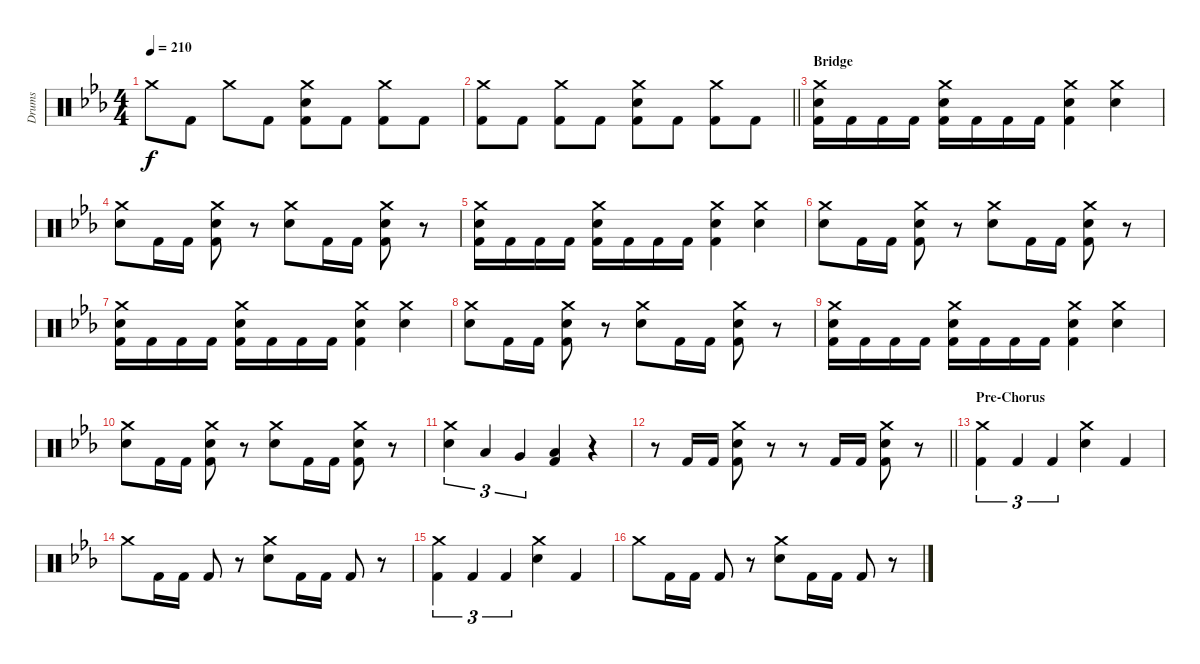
\track ("Drums" "Drums") {instrument percussion}
\staff {score}
\articulation defaults
\ts (4 4)
\tempo 210
\clef neutral
\ks cminor "Crash medium (hit)".8{dy f} "Kick (hit) 2".8 "Crash medium (hit)".8 "Kick (hit) 2".8
("Crash medium (hit)" "Electric Snare (hit)" "Kick (hit) 2").8 "Kick (hit) 2".8 ("Crash medium (hit)" "Kick (hit) 2").8 "Kick (hit) 2".8 |
\barLineRight lightlight
("Crash medium (hit)" "Kick (hit) 2").8 "Kick (hit) 2".8 ("Crash medium (hit)" "Kick (hit) 2").8 "Kick (hit) 2".8 ("Crash medium (hit)" "Electric Snare (hit)" "Kick (hit) 2").8 "Kick (hit) 2".8 ("Crash medium (hit)" "Kick (hit) 2").8 "Kick (hit) 2".8 |
\section ("" "Bridge")
("Crash medium (hit)" "Electric Snare (hit)" "Kick (hit) 2").16 "Kick (hit) 2".16 "Kick (hit) 2".16 "Kick (hit) 2".16 ("Crash medium (hit)" "Electric Snare (hit)" "Kick (hit) 2").16 "Kick (hit) 2".16 "Kick (hit) 2".16 "Kick (hit) 2".16 ("Crash medium (hit)" "Electric Snare (hit)" "Kick (hit) 2").4 ("Crash medium (hit)" "Electric Snare (hit)").4 |
("Crash medium (hit)" "Electric Snare (hit)").8 "Kick (hit) 2".16 "Kick (hit) 2".16 ("Crash medium (hit)" "Electric Snare (hit)" "Kick (hit) 2").8 r.8 ("Crash medium (hit)" "Electric Snare (hit)").8 "Kick (hit) 2".16 "Kick (hit) 2".16 ("Crash medium (hit)" "Electric Snare (hit)" "Kick (hit) 2").8 r.8 |
("Crash medium (hit)" "Electric Snare (hit)" "Kick (hit) 2").16 "Kick (hit) 2".16 "Kick (hit) 2".16 "Kick (hit) 2".16 ("Crash medium (hit)" "Electric Snare (hit)" "Kick (hit) 2").16 "Kick (hit) 2".16 "Kick (hit) 2".16 "Kick (hit) 2".16 ("Crash medium (hit)" "Electric Snare (hit)" "Kick (hit) 2").4 ("Crash medium (hit)" "Electric Snare (hit)").4 |
("Crash medium (hit)" "Electric Snare (hit)").8 "Kick (hit) 2".16 "Kick (hit) 2".16 ("Crash medium (hit)" "Electric Snare (hit)" "Kick (hit) 2").8 r.8 ("Crash medium (hit)" "Electric Snare (hit)").8 "Kick (hit) 2".16 "Kick (hit) 2".16 ("Crash medium (hit)" "Electric Snare (hit)" "Kick (hit) 2").8 r.8 |
("Crash medium (hit)" "Electric Snare (hit)" "Kick (hit) 2").16 "Kick (hit) 2".16 "Kick (hit) 2".16 "Kick (hit) 2".16 ("Crash medium (hit)" "Electric Snare (hit)" "Kick (hit) 2").16 "Kick (hit) 2".16 "Kick (hit) 2".16 "Kick (hit) 2".16 ("Crash medium (hit)" "Electric Snare (hit)" "Kick (hit) 2").4 ("Crash medium (hit)" "Electric Snare (hit)").4 |
("Crash medium (hit)" "Electric Snare (hit)").8 "Kick (hit) 2".16 "Kick (hit) 2".16 ("Crash medium (hit)" "Electric Snare (hit)" "Kick (hit) 2").8 r.8 ("Crash medium (hit)" "Electric Snare (hit)").8 "Kick (hit) 2".16 "Kick (hit) 2".16 ("Crash medium (hit)" "Electric Snare (hit)" "Kick (hit) 2").8 r.8 |
("Crash medium (hit)" "Electric Snare (hit)" "Kick (hit) 2").16 "Kick (hit) 2".16 "Kick (hit) 2".16 "Kick (hit) 2".16 ("Crash medium (hit)" "Electric Snare (hit)" "Kick (hit) 2").16 "Kick (hit) 2".16 "Kick (hit) 2".16 "Kick (hit) 2".16 ("Crash medium (hit)" "Electric Snare (hit)" "Kick (hit) 2").4 ("Crash medium (hit)" "Electric Snare (hit)").4 |
("Crash medium (hit)" "Electric Snare (hit)").8 "Kick (hit) 2".16 "Kick (hit) 2".16 ("Crash medium (hit)" "Electric Snare (hit)" "Kick (hit) 2").8 r.8 ("Crash medium (hit)" "Electric Snare (hit)").8 "Kick (hit) 2".16 "Kick (hit) 2".16 ("Crash medium (hit)" "Electric Snare (hit)" "Kick (hit) 2").8 r.8 |
("Crash medium (hit)" "Electric Snare (hit)").4{tu (3 2)} "Low Tom (hit)".4{tu (3 2)} "Very Low Tom (hit)".4{tu (3 2)} ("Low Floor Tom (hit)" "Kick (hit) 2").4 r.4 |
\barLineRight lightlight
r.8 "Kick (hit) 2".16 "Kick (hit) 2".16 ("Crash medium (hit)" "Electric Snare (hit)" "Kick (hit) 2").8 r.8 r.8 "Kick (hit) 2".16 "Kick (hit) 2".16 ("Crash medium (hit)" "Electric Snare (hit)" "Kick (hit) 2").8 r.8 |
\section ("" "Pre-Chorus")
("Crash medium (hit)" "Kick (hit) 2").4{tu (3 2)} "Kick (hit) 2".4{tu (3 2)} "Kick (hit) 2".4{tu (3 2)} ("Crash medium (hit)" "Electric Snare (hit)").4 "Kick (hit) 2".4 |
"Crash medium (hit)".8 "Kick (hit) 2".16 "Kick (hit) 2".16 "Kick (hit) 2".8 r.8 ("Crash medium (hit)" "Electric Snare (hit)").8 "Kick (hit) 2".16 "Kick (hit) 2".16 "Kick (hit) 2".8 r.8 |
("Crash medium (hit)" "Kick (hit) 2").4{tu (3 2)} "Kick (hit) 2".4{tu (3 2)} "Kick (hit) 2".4{tu (3 2)} ("Crash medium (hit)" "Electric Snare (hit)").4 "Kick (hit) 2".4 |
"Crash medium (hit)".8 "Kick (hit) 2".16 "Kick (hit) 2".16 "Kick (hit) 2".8 r.8 ("Crash medium (hit)" "Electric Snare (hit)").8 "Kick (hit) 2".16 "Kick (hit) 2".16 "Kick (hit) 2".8 r.8
